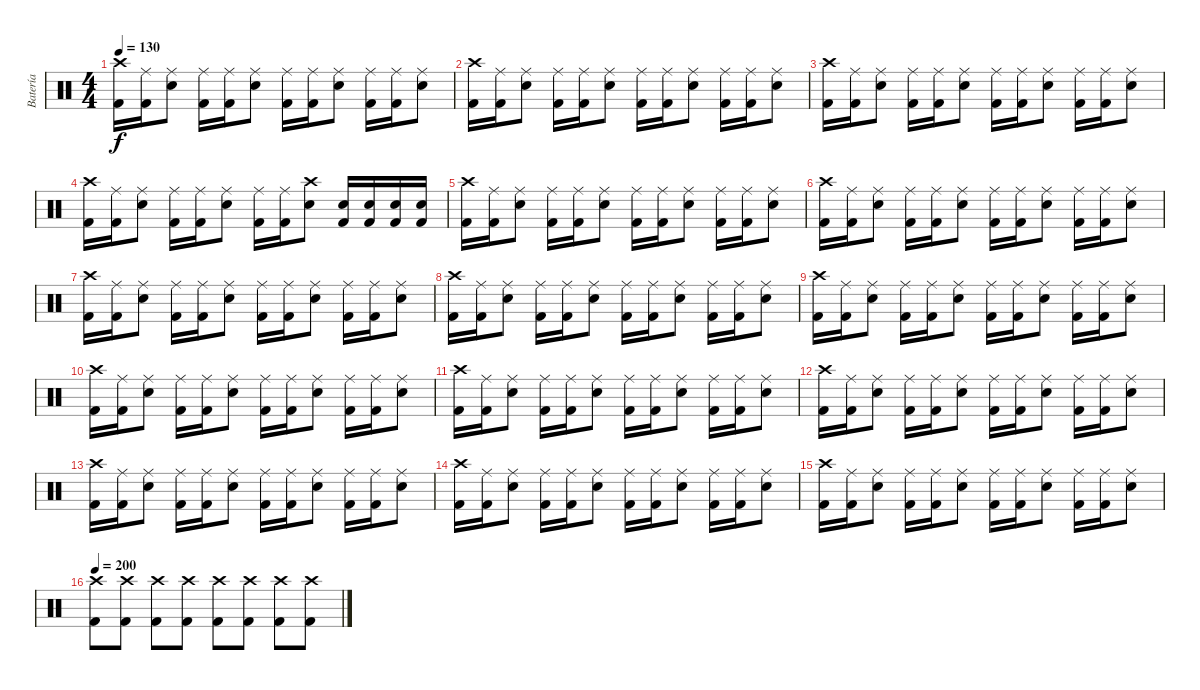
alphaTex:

\track ("Batería" "Batería") {instrument percussion}
\staff {score}
\articulation defaults
\ts (4 4)
\tempo 130
\clef neutral
\ks c
("Crash high (hit)" "Kick (hit) 2").16{dy f} ("Ride (middle)" "Kick (hit) 2").16 ("Ride (middle)" "Electric Snare (hit)").8 ("Ride (middle)" "Kick (hit) 2").16 ("Ride (middle)" "Kick (hit) 2").16 ("Ride (middle)" "Electric Snare (hit)").8 ("Ride (middle)" "Kick (hit) 2").16 ("Ride (middle)" "Kick (hit) 2").16 ("Ride (middle)" "Electric Snare (hit)").8 ("Ride (middle)" "Kick (hit) 2").16 ("Ride (middle)" "Kick (hit) 2").16 ("Ride (middle)" "Electric Snare (hit)").8 |
("Crash high (hit)" "Kick (hit) 2").16 ("Ride (middle)" "Kick (hit) 2").16 ("Ride (middle)" "Electric Snare (hit)").8 ("Ride (middle)" "Kick (hit) 2").16 ("Ride (middle)" "Kick (hit) 2").16 ("Ride (middle)" "Electric Snare (hit)").8 ("Ride (middle)" "Kick (hit) 2").16 ("Ride (middle)" "Kick (hit) 2").16 ("Ride (middle)" "Electric Snare (hit)").8 ("Ride (middle)" "Kick (hit) 2").16 ("Ride (middle)" "Kick (hit) 2").16 ("Ride (middle)" "Electric Snare (hit)").8 |
("Crash high (hit)" "Kick (hit) 2").16 ("Ride (middle)" "Kick (hit) 2").16 ("Ride (middle)" "Electric Snare (hit)").8 ("Ride (middle)" "Kick (hit) 2").16 ("Ride (middle)" "Kick (hit) 2").16 ("Ride (middle)" "Electric Snare (hit)").8 ("Ride (middle)" "Kick (hit) 2").16 ("Ride (middle)" "Kick (hit) 2").16 ("Ride (middle)" "Electric Snare (hit)").8 ("Ride (middle)" "Kick (hit) 2").16 ("Ride (middle)" "Kick (hit) 2").16 ("Ride (middle)" "Electric Snare (hit)").8 |
("Crash high (hit)" "Kick (hit) 2").16 ("Ride (middle)" "Kick (hit) 2").16 ("Ride (middle)" "Electric Snare (hit)").8 ("Ride (middle)" "Kick (hit) 2").16 ("Ride (middle)" "Kick (hit) 2").16 ("Ride (middle)" "Electric Snare (hit)").8 ("Ride (middle)" "Kick (hit) 2").16 ("Ride (middle)" "Kick (hit) 2").16 ("Crash high (hit)" "Electric Snare (hit)").8 ("Electric Snare (hit)" "Kick (hit) 2").16 ("Electric Snare (hit)" "Kick (hit) 2").16 ("Electric Snare (hit)" "Kick (hit) 2").16 ("Electric Snare (hit)" "Kick (hit) 2").16 |
("Crash high (hit)" "Kick (hit) 2").16 ("Ride (middle)" "Kick (hit) 2").16 ("Ride (middle)" "Electric Snare (hit)").8 ("Ride (middle)" "Kick (hit) 2").16 ("Ride (middle)" "Kick (hit) 2").16 ("Ride (middle)" "Electric Snare (hit)").8 ("Ride (middle)" "Kick (hit) 2").16 ("Ride (middle)" "Kick (hit) 2").16 ("Ride (middle)" "Electric Snare (hit)").8 ("Ride (middle)" "Kick (hit) 2").16 ("Ride (middle)" "Kick (hit) 2").16 ("Ride (middle)" "Electric Snare (hit)").8 |
("Crash high (hit)" "Kick (hit) 2").16 ("Ride (middle)" "Kick (hit) 2").16 ("Ride (middle)" "Electric Snare (hit)").8 ("Ride (middle)" "Kick (hit) 2").16 ("Ride (middle)" "Kick (hit) 2").16 ("Ride (middle)" "Electric Snare (hit)").8 ("Ride (middle)" "Kick (hit) 2").16 ("Ride (middle)" "Kick (hit) 2").16 ("Ride (middle)" "Electric Snare (hit)").8 ("Ride (middle)" "Kick (hit) 2").16 ("Ride (middle)" "Kick (hit) 2").16 ("Ride (middle)" "Electric Snare (hit)").8 |
("Crash high (hit)" "Kick (hit) 2").16 ("Ride (middle)" "Kick (hit) 2").16 ("Ride (middle)" "Electric Snare (hit)").8 ("Ride (middle)" "Kick (hit) 2").16 ("Ride (middle)" "Kick (hit) 2").16 ("Ride (middle)" "Electric Snare (hit)").8 ("Ride (middle)" "Kick (hit) 2").16 ("Ride (middle)" "Kick (hit) 2").16 ("Ride (middle)" "Electric Snare (hit)").8 ("Ride (middle)" "Kick (hit) 2").16 ("Ride (middle)" "Kick (hit) 2").16 ("Ride (middle)" "Electric Snare (hit)").8 |
("Crash high (hit)" "Kick (hit) 2").16 ("Ride (middle)" "Kick (hit) 2").16 ("Ride (middle)" "Electric Snare (hit)").8 ("Ride (middle)" "Kick (hit) 2").16 ("Ride (middle)" "Kick (hit) 2").16 ("Ride (middle)" "Electric Snare (hit)").8 ("Ride (middle)" "Kick (hit) 2").16 ("Ride (middle)" "Kick (hit) 2").16 ("Ride (middle)" "Electric Snare (hit)").8 ("Ride (middle)" "Kick (hit) 2").16 ("Ride (middle)" "Kick (hit) 2").16 ("Ride (middle)" "Electric Snare (hit)").8 |
("Crash high (hit)" "Kick (hit) 2").16 ("Ride (middle)" "Kick (hit) 2").16 ("Ride (middle)" "Electric Snare (hit)").8 ("Ride (middle)" "Kick (hit) 2").16 ("Ride (middle)" "Kick (hit) 2").16 ("Ride (middle)" "Electric Snare (hit)").8 ("Ride (middle)" "Kick (hit) 2").16 ("Ride (middle)" "Kick (hit) 2").16 ("Ride (middle)" "Electric Snare (hit)").8 ("Ride (middle)" "Kick (hit) 2").16 ("Ride (middle)" "Kick (hit) 2").16 ("Ride (middle)" "Electric Snare (hit)").8 |
("Crash high (hit)" "Kick (hit) 2").16 ("Ride (middle)" "Kick (hit) 2").16 ("Ride (middle)" "Electric Snare (hit)").8 ("Ride (middle)" "Kick (hit) 2").16 ("Ride (middle)" "Kick (hit) 2").16 ("Ride (middle)" "Electric Snare (hit)").8 ("Ride (middle)" "Kick (hit) 2").16 ("Ride (middle)" "Kick (hit) 2").16 ("Ride (middle)" "Electric Snare (hit)").8 ("Ride (middle)" "Kick (hit) 2").16 ("Ride (middle)" "Kick (hit) 2").16 ("Ride (middle)" "Electric Snare (hit)").8 |
("Crash high (hit)" "Kick (hit) 2").16 ("Ride (middle)" "Kick (hit) 2").16 ("Ride (middle)" "Electric Snare (hit)").8 ("Ride (middle)" "Kick (hit) 2").16 ("Ride (middle)" "Kick (hit) 2").16 ("Ride (middle)" "Electric Snare (hit)").8 ("Ride (middle)" "Kick (hit) 2").16 ("Ride (middle)" "Kick (hit) 2").16 ("Ride (middle)" "Electric Snare (hit)").8 ("Ride (middle)" "Kick (hit) 2").16 ("Ride (middle)" "Kick (hit) 2").16 ("Ride (middle)" "Electric Snare (hit)").8 |
("Crash high (hit)" "Kick (hit) 2").16 ("Ride (middle)" "Kick (hit) 2").16 ("Ride (middle)" "Electric Snare (hit)").8 ("Ride (middle)" "Kick (hit) 2").16 ("Ride (middle)" "Kick (hit) 2").16 ("Ride (middle)" "Electric Snare (hit)").8 ("Ride (middle)" "Kick (hit) 2").16 ("Ride (middle)" "Kick (hit) 2").16 ("Ride (middle)" "Electric Snare (hit)").8 ("Ride (middle)" "Kick (hit) 2").16 ("Ride (middle)" "Kick (hit) 2").16 ("Ride (middle)" "Electric Snare (hit)").8 |
("Crash high (hit)" "Kick (hit) 2").16 ("Ride (middle)" "Kick (hit) 2").16 ("Ride (middle)" "Electric Snare (hit)").8 ("Ride (middle)" "Kick (hit) 2").16 ("Ride (middle)" "Kick (hit) 2").16 ("Ride (middle)" "Electric Snare (hit)").8 ("Ride (middle)" "Kick (hit) 2").16 ("Ride (middle)" "Kick (hit) 2").16 ("Ride (middle)" "Electric Snare (hit)").8 ("Ride (middle)" "Kick (hit) 2").16 ("Ride (middle)" "Kick (hit) 2").16 ("Ride (middle)" "Electric Snare (hit)").8 |
("Crash high (hit)" "Kick (hit) 2").16 ("Ride (middle)" "Kick (hit) 2").16 ("Ride (middle)" "Electric Snare (hit)").8 ("Ride (middle)" "Kick (hit) 2").16 ("Ride (middle)" "Kick (hit) 2").16 ("Ride (middle)" "Electric Snare (hit)").8 ("Ride (middle)" "Kick (hit) 2").16 ("Ride (middle)" "Kick (hit) 2").16 ("Ride (middle)" "Electric Snare (hit)").8 ("Ride (middle)" "Kick (hit) 2").16 ("Ride (middle)" "Kick (hit) 2").16 ("Ride (middle)" "Electric Snare (hit)").8 |
("Crash high (hit)" "Kick (hit) 2").16 ("Ride (middle)" "Kick (hit) 2").16 ("Ride (middle)" "Electric Snare (hit)").8 ("Ride (middle)" "Kick (hit) 2").16 ("Ride (middle)" "Kick (hit) 2").16 ("Ride (middle)" "Electric Snare (hit)").8 ("Ride (middle)" "Kick (hit) 2").16 ("Ride (middle)" "Kick (hit) 2").16 ("Ride (middle)" "Electric Snare (hit)").8 ("Ride (middle)" "Kick (hit) 2").16 ("Ride (middle)" "Kick (hit) 2").16 ("Ride (middle)" "Electric Snare (hit)").8 |
\tempo 200
("Crash high (hit)" "Kick (hit) 2").8 ("Crash high (hit)" "Kick (hit) 2").8 ("Crash high (hit)" "Kick (hit) 2").8 ("Crash high (hit)" "Kick (hit) 2").8 ("Crash high (hit)" "Kick (hit) 2").8 ("Crash high (hit)" "Kick (hit) 2").8 ("Crash high (hit)" "Kick (hit) 2").8 ("Crash high (hit)" "Kick (hit) 2").8
